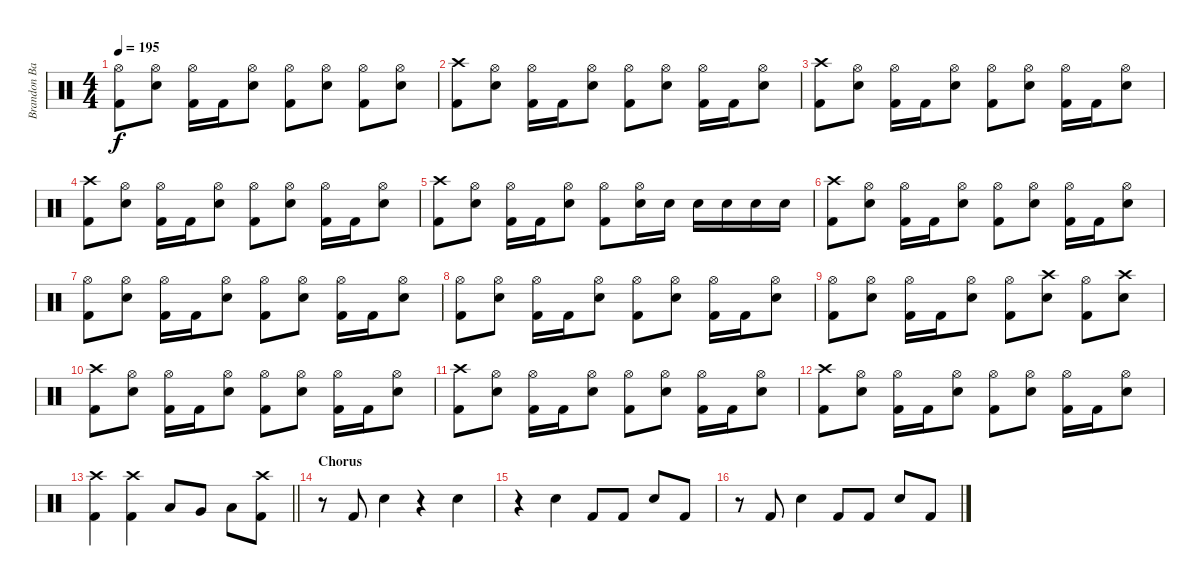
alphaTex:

\track ("Brandon Barnes - Drums" "Brandon Ba") {instrument percussion}
\staff {score}
\articulation defaults
\ts (4 4)
\tempo 195
\clef neutral
\ks c
("Hi-Hat (open)" "Kick (hit) 2").8{dy f} ("Snare (hit) 2" "Hi-Hat (open)").8 ("Kick (hit) 2" "Hi-Hat (open)").16 "Kick (hit) 2".16 ("Snare (hit) 2" "Hi-Hat (open)").8 ("Hi-Hat (open)" "Kick (hit) 2").8 ("Snare (hit) 2" "Hi-Hat (open)").8 ("Hi-Hat (open)" "Kick (hit) 2").8 ("Snare (hit) 2" "Hi-Hat (open)").8 |
("Crash high (hit)" "Kick (hit) 2").8 ("Snare (hit) 2" "Hi-Hat (open)").8 ("Kick (hit) 2" "Hi-Hat (open)").16 "Kick (hit) 2".16 ("Snare (hit) 2" "Hi-Hat (open)").8 ("Hi-Hat (open)" "Kick (hit) 2").8 ("Snare (hit) 2" "Hi-Hat (open)").8 ("Kick (hit) 2" "Hi-Hat (open)").16 "Kick (hit) 2".16 ("Snare (hit) 2" "Hi-Hat (open)").8 |
("Crash high (hit)" "Kick (hit) 2").8 ("Snare (hit) 2" "Hi-Hat (open)").8 ("Kick (hit) 2" "Hi-Hat (open)").16 "Kick (hit) 2".16 ("Snare (hit) 2" "Hi-Hat (open)").8 ("Hi-Hat (open)" "Kick (hit) 2").8 ("Snare (hit) 2" "Hi-Hat (open)").8 ("Kick (hit) 2" "Hi-Hat (open)").16 "Kick (hit) 2".16 ("Snare (hit) 2" "Hi-Hat (open)").8 |
("Crash high (hit)" "Kick (hit) 2").8 ("Snare (hit) 2" "Hi-Hat (open)").8 ("Kick (hit) 2" "Hi-Hat (open)").16 "Kick (hit) 2".16 ("Snare (hit) 2" "Hi-Hat (open)").8 ("Hi-Hat (open)" "Kick (hit) 2").8 ("Snare (hit) 2" "Hi-Hat (open)").8 ("Kick (hit) 2" "Hi-Hat (open)").16 "Kick (hit) 2".16 ("Snare (hit) 2" "Hi-Hat (open)").8 |
("Crash high (hit)" "Kick (hit) 2").8 ("Snare (hit) 2" "Hi-Hat (open)").8 ("Kick (hit) 2" "Hi-Hat (open)").16 "Kick (hit) 2".16 ("Snare (hit) 2" "Hi-Hat (open)").8 ("Hi-Hat (open)" "Kick (hit) 2").8 ("Snare (hit) 2" "Hi-Hat (open)").16 "Snare (hit) 2".16 "Snare (hit) 2".16 "Snare (hit) 2".16 "Snare (hit) 2".16 "Snare (hit) 2".16 |
("Crash high (hit)" "Kick (hit) 2").8 ("Snare (hit) 2" "Hi-Hat (open)").8 ("Kick (hit) 2" "Hi-Hat (open)").16 "Kick (hit) 2".16 ("Snare (hit) 2" "Hi-Hat (open)").8 ("Hi-Hat (open)" "Kick (hit) 2").8 ("Snare (hit) 2" "Hi-Hat (open)").8 ("Kick (hit) 2" "Hi-Hat (open)").16 "Kick (hit) 2".16 ("Snare (hit) 2" "Hi-Hat (open)").8 |
("Hi-Hat (open)" "Kick (hit) 2").8 ("Snare (hit) 2" "Hi-Hat (open)").8 ("Kick (hit) 2" "Hi-Hat (open)").16 "Kick (hit) 2".16 ("Snare (hit) 2" "Hi-Hat (open)").8 ("Hi-Hat (open)" "Kick (hit) 2").8 ("Snare (hit) 2" "Hi-Hat (open)").8 ("Kick (hit) 2" "Hi-Hat (open)").16 "Kick (hit) 2".16 ("Snare (hit) 2" "Hi-Hat (open)").8 |
("Hi-Hat (open)" "Kick (hit) 2").8 ("Snare (hit) 2" "Hi-Hat (open)").8 ("Kick (hit) 2" "Hi-Hat (open)").16 "Kick (hit) 2".16 ("Snare (hit) 2" "Hi-Hat (open)").8 ("Hi-Hat (open)" "Kick (hit) 2").8 ("Snare (hit) 2" "Hi-Hat (open)").8 ("Kick (hit) 2" "Hi-Hat (open)").16 "Kick (hit) 2".16 ("Snare (hit) 2" "Hi-Hat (open)").8 |
("Hi-Hat (open)" "Kick (hit) 2").8 ("Snare (hit) 2" "Hi-Hat (open)").8 ("Kick (hit) 2" "Hi-Hat (open)").16 "Kick (hit) 2".16 ("Snare (hit) 2" "Hi-Hat (open)").8 ("Hi-Hat (open)" "Kick (hit) 2").8 ("Crash high (hit)" "Snare (hit) 2").8 ("Kick (hit) 2" "Hi-Hat (open)").8 ("Crash high (hit)" "Snare (hit) 2").8 |
("Crash high (hit)" "Kick (hit) 2").8 ("Snare (hit) 2" "Hi-Hat (open)").8 ("Kick (hit) 2" "Hi-Hat (open)").16 "Kick (hit) 2".16 ("Snare (hit) 2" "Hi-Hat (open)").8 ("Hi-Hat (open)" "Kick (hit) 2").8 ("Snare (hit) 2" "Hi-Hat (open)").8 ("Kick (hit) 2" "Hi-Hat (open)").16 "Kick (hit) 2".16 ("Snare (hit) 2" "Hi-Hat (open)").8 |
("Crash high (hit)" "Kick (hit) 2").8 ("Snare (hit) 2" "Hi-Hat (open)").8 ("Kick (hit) 2" "Hi-Hat (open)").16 "Kick (hit) 2".16 ("Snare (hit) 2" "Hi-Hat (open)").8 ("Hi-Hat (open)" "Kick (hit) 2").8 ("Snare (hit) 2" "Hi-Hat (open)").8 ("Kick (hit) 2" "Hi-Hat (open)").16 "Kick (hit) 2".16 ("Snare (hit) 2" "Hi-Hat (open)").8 |
("Crash high (hit)" "Kick (hit) 2").8 ("Snare (hit) 2" "Hi-Hat (open)").8 ("Kick (hit) 2" "Hi-Hat (open)").16 "Kick (hit) 2".16 ("Snare (hit) 2" "Hi-Hat (open)").8 ("Hi-Hat (open)" "Kick (hit) 2").8 ("Snare (hit) 2" "Hi-Hat (open)").8 ("Kick (hit) 2" "Hi-Hat (open)").16 "Kick (hit) 2".16 ("Snare (hit) 2" "Hi-Hat (open)").8 |
\barLineRight lightlight
("Crash high (hit)" "Kick (hit) 2").4 ("Crash high (hit)" "Kick (hit) 2").4 "Low Tom (hit)".8 "Very Low Tom (hit)".8 "Low Floor Tom (hit)".8 ("Crash high (hit)" "Kick (hit) 2").8 |
\section ("" "Chorus")
r.8 "Kick (hit) 2".8 "Snare (hit) 2".4 r.4 "Snare (hit) 2".4 |
r.4 "Snare (hit) 2".4 "Kick (hit) 2".8 "Kick (hit) 2".8 "Snare (hit) 2".8 "Kick (hit) 2".8 |
r.8 "Kick (hit) 2".8 "Snare (hit) 2".4 "Kick (hit) 2".8 "Kick (hit) 2".8 "Snare (hit) 2".8 "Kick (hit) 2".8
